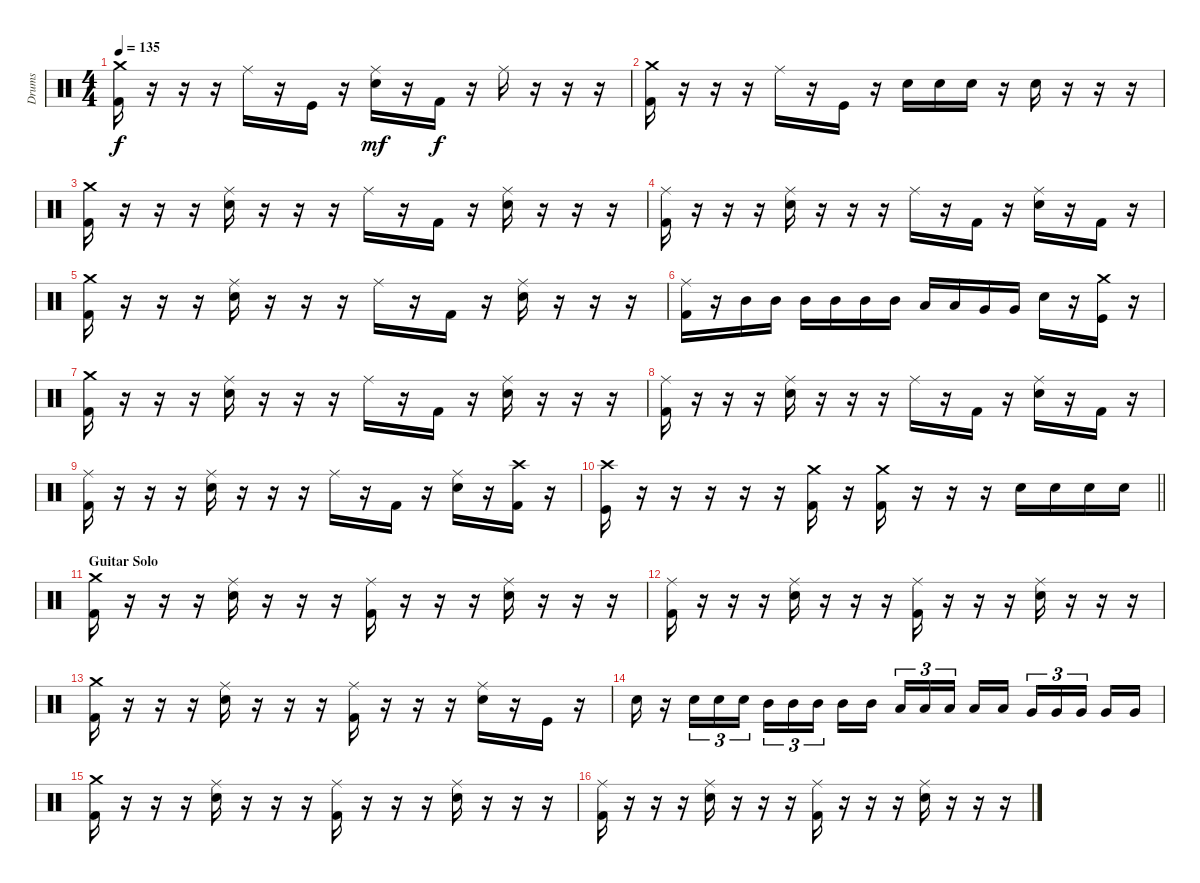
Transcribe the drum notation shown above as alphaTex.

\track ("Drums" "Drums") {instrument percussion}
\staff {score}
\articulation defaults
\ts (4 4)
\tempo 135
\clef neutral
\ks c
("Crash medium (hit)" "Kick (hit) 2").16{dy f} r.16 r.16 r.16 "Ride (middle)".16 r.16 "Kick (hit)".16 r.16 ("Ride (middle)" "Electric Snare (hit)").16{dy mf} r.16 "Kick (hit) 2".16{dy f} r.16 "Ride (middle)".16 r.16 r.16 r.16 |
("Crash medium (hit)" "Kick (hit) 2").16 r.16 r.16 r.16 "Ride (middle)".16 r.16 "Kick (hit)".16 r.16 "Electric Snare (hit)".16 "Electric Snare (hit)".16 "Electric Snare (hit)".16 r.16 "Electric Snare (hit)".16 r.16 r.16 r.16 |
("Crash medium (hit)" "Kick (hit) 2").16 r.16 r.16 r.16 ("Ride (middle)" "Electric Snare (hit)").16 r.16 r.16 r.16 "Ride (middle)".16 r.16 "Kick (hit) 2".16 r.16 ("Ride (middle)" "Electric Snare (hit)").16 r.16 r.16 r.16 |
("Ride (middle)" "Kick (hit) 2").16 r.16 r.16 r.16 ("Ride (middle)" "Electric Snare (hit)").16 r.16 r.16 r.16 "Ride (middle)".16 r.16 "Kick (hit) 2".16 r.16 ("Ride (middle)" "Electric Snare (hit)").16 r.16 "Kick (hit) 2".16 r.16 |
("Crash medium (hit)" "Kick (hit) 2").16 r.16 r.16 r.16 ("Ride (middle)" "Electric Snare (hit)").16 r.16 r.16 r.16 "Ride (middle)".16 r.16 "Kick (hit) 2".16 r.16 ("Ride (middle)" "Electric Snare (hit)").16 r.16 r.16 r.16 |
("Ride (middle)" "Kick (hit) 2").16 r.16 "Mid Tom (hit)".16 "Mid Tom (hit)".16 "Mid Tom (hit)".16 "Mid Tom (hit)".16 "Mid Tom (hit)".16 "Mid Tom (hit)".16 "Low Tom (hit)".16 "Low Tom (hit)".16 "Very Low Tom (hit)".16 "Very Low Tom (hit)".16 "Electric Snare (hit)".16 r.16 ("Crash medium (hit)" "Kick (hit)").16 r.16 |
("Crash medium (hit)" "Kick (hit) 2").16 r.16 r.16 r.16 ("Ride (middle)" "Electric Snare (hit)").16 r.16 r.16 r.16 "Ride (middle)".16 r.16 "Kick (hit) 2".16 r.16 ("Ride (middle)" "Electric Snare (hit)").16 r.16 r.16 r.16 |
("Ride (middle)" "Kick (hit) 2").16 r.16 r.16 r.16 ("Ride (middle)" "Electric Snare (hit)").16 r.16 r.16 r.16 "Ride (middle)".16 r.16 "Kick (hit) 2".16 r.16 ("Ride (middle)" "Electric Snare (hit)").16 r.16 "Kick (hit) 2".16 r.16 |
("Ride (middle)" "Kick (hit) 2").16 r.16 r.16 r.16 ("Ride (middle)" "Electric Snare (hit)").16 r.16 r.16 r.16 "Ride (middle)".16 r.16 "Kick (hit) 2".16 r.16 ("Ride (middle)" "Electric Snare (hit)").16 r.16 ("Crash high (hit)" "Kick (hit) 2").16 r.16 |
\barLineRight lightlight
("Crash high (hit)" "Kick (hit)").16 r.16 r.16 r.16 r.16 r.16 ("Crash medium (hit)" "Kick (hit) 2").16 r.16 ("Crash medium (hit)" "Kick (hit) 2").16 r.16 r.16 r.16 "Electric Snare (hit)".16 "Electric Snare (hit)".16 "Electric Snare (hit)".16 "Electric Snare (hit)".16 |
\section ("" "Guitar Solo")
("Crash medium (hit)" "Kick (hit) 2").16 r.16 r.16 r.16 ("Ride (middle)" "Electric Snare (hit)").16 r.16 r.16 r.16 ("Ride (middle)" "Kick (hit) 2").16 r.16 r.16 r.16 ("Ride (middle)" "Electric Snare (hit)").16 r.16 r.16 r.16 |
("Ride (middle)" "Kick (hit) 2").16 r.16 r.16 r.16 ("Ride (middle)" "Electric Snare (hit)").16 r.16 r.16 r.16 ("Ride (middle)" "Kick (hit) 2").16 r.16 r.16 r.16 ("Ride (middle)" "Electric Snare (hit)").16 r.16 r.16 r.16 |
("Crash medium (hit)" "Kick (hit) 2").16 r.16 r.16 r.16 ("Ride (middle)" "Electric Snare (hit)").16 r.16 r.16 r.16 ("Ride (middle)" "Kick (hit) 2").16 r.16 r.16 r.16 ("Ride (middle)" "Electric Snare (hit)").16 r.16 "Kick (hit)".16 r.16 |
"Electric Snare (hit)".16 r.16 "Electric Snare (hit)".16{tu (3 2)} "Electric Snare (hit)".16{tu (3 2)} "Electric Snare (hit)".16{tu (3 2)} "Mid Tom (hit)".16{tu (3 2)} "Mid Tom (hit)".16{tu (3 2)} "Mid Tom (hit)".16{tu (3 2) beam splitsecondary} "Mid Tom (hit)".16 "Mid Tom (hit)".16 "Low Tom (hit)".16{tu (3 2)} "Low Tom (hit)".16{tu (3 2)} "Low Tom (hit)".16{tu (3 2) beam splitsecondary} "Low Tom (hit)".16 "Low Tom (hit)".16 "Very Low Tom (hit)".16{tu (3 2)} "Very Low Tom (hit)".16{tu (3 2)} "Very Low Tom (hit)".16{tu (3 2) beam splitsecondary} "Very Low Tom (hit)".16 "Very Low Tom (hit)".16 |
("Crash medium (hit)" "Kick (hit) 2").16 r.16 r.16 r.16 ("Ride (middle)" "Electric Snare (hit)").16 r.16 r.16 r.16 ("Ride (middle)" "Kick (hit) 2").16 r.16 r.16 r.16 ("Ride (middle)" "Electric Snare (hit)").16 r.16 r.16 r.16 |
("Ride (middle)" "Kick (hit) 2").16 r.16 r.16 r.16 ("Ride (middle)" "Electric Snare (hit)").16 r.16 r.16 r.16 ("Ride (middle)" "Kick (hit) 2").16 r.16 r.16 r.16 ("Ride (middle)" "Electric Snare (hit)").16 r.16 r.16 r.16
